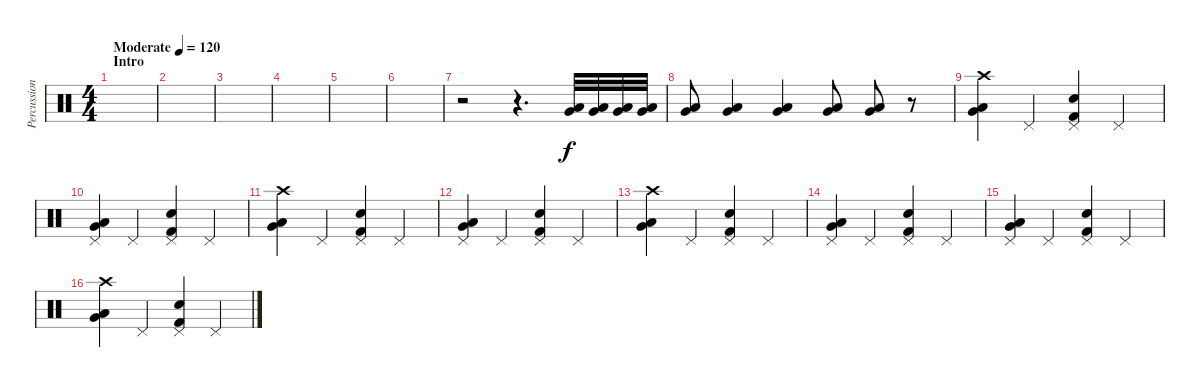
\track ("Percussion" "Percussion") {instrument percussion}
\staff {score}
\articulation defaults
\ts (4 4)
\section ("" "Intro")
\tempo (120 "Moderate")
\clef neutral
\ks c
|
|
|
|
|
|
r.2 r.4{d} ("Low Floor Tom (hit)" "Very Low Tom (hit)").32{volume 16} ("Low Floor Tom (hit)" "Very Low Tom (hit)").32 ("Low Floor Tom (hit)" "Very Low Tom (hit)").32 ("Low Floor Tom (hit)" "Very Low Tom (hit)").32 |
("Low Floor Tom (hit)" "Very Low Tom (hit)").8 ("Low Floor Tom (hit)" "Very Low Tom (hit)").4 ("Low Floor Tom (hit)" "Very Low Tom (hit)").4 ("Low Floor Tom (hit)" "Very Low Tom (hit)").8 ("Low Floor Tom (hit)" "Very Low Tom (hit)").8 r.8 |
("Crash high (hit)" "Low Floor Tom (hit)" "Very Low Tom (hit)").4{dy f volume 14} "Pedal Hi-Hat (hit)".4 ("Pedal Hi-Hat (hit)" "Snare (hit) 2" "Kick (hit) 2").4 "Pedal Hi-Hat (hit)".4 |
("Pedal Hi-Hat (hit)" "Low Floor Tom (hit)" "Very Low Tom (hit)").4 "Pedal Hi-Hat (hit)".4 ("Pedal Hi-Hat (hit)" "Snare (hit) 2" "Kick (hit) 2").4 "Pedal Hi-Hat (hit)".4 |
("Crash high (hit)" "Low Floor Tom (hit)" "Very Low Tom (hit)").4 "Pedal Hi-Hat (hit)".4 ("Pedal Hi-Hat (hit)" "Snare (hit) 2" "Kick (hit) 2").4 "Pedal Hi-Hat (hit)".4 |
("Pedal Hi-Hat (hit)" "Low Floor Tom (hit)" "Very Low Tom (hit)").4 "Pedal Hi-Hat (hit)".4 ("Pedal Hi-Hat (hit)" "Snare (hit) 2" "Kick (hit) 2").4 "Pedal Hi-Hat (hit)".4 |
("Crash high (hit)" "Low Floor Tom (hit)" "Very Low Tom (hit)").4 "Pedal Hi-Hat (hit)".4 ("Pedal Hi-Hat (hit)" "Snare (hit) 2" "Kick (hit) 2").4 "Pedal Hi-Hat (hit)".4 |
("Pedal Hi-Hat (hit)" "Low Floor Tom (hit)" "Very Low Tom (hit)").4 "Pedal Hi-Hat (hit)".4 ("Pedal Hi-Hat (hit)" "Snare (hit) 2" "Kick (hit) 2").4 "Pedal Hi-Hat (hit)".4 |
("Pedal Hi-Hat (hit)" "Low Floor Tom (hit)" "Very Low Tom (hit)").4 "Pedal Hi-Hat (hit)".4 ("Pedal Hi-Hat (hit)" "Snare (hit) 2" "Kick (hit) 2").4 "Pedal Hi-Hat (hit)".4 |
("Crash high (hit)" "Low Floor Tom (hit)" "Very Low Tom (hit)").4 "Pedal Hi-Hat (hit)".4 ("Pedal Hi-Hat (hit)" "Snare (hit) 2" "Kick (hit) 2").4 "Pedal Hi-Hat (hit)".4
